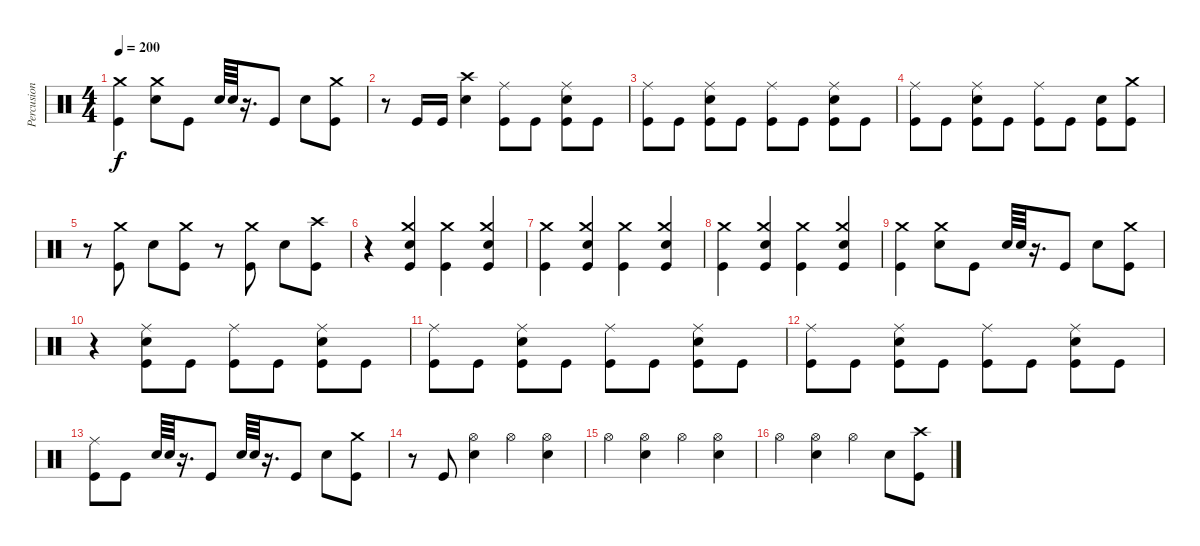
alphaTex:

\track ("Percusion" "Percusion") {instrument percussion}
\staff {score}
\articulation defaults
\ts (4 4)
\tempo 200
\clef neutral
\ks c
("Kick (hit)" "Crash medium (hit)").4{dy f} ("Crash medium (hit)" "Snare (hit) 2").8 "Kick (hit)".8 "Snare (hit) 2".64 "Snare (hit) 2".64 r.16{d} "Kick (hit)".8 "Snare (hit) 2".8 ("Crash medium (hit)" "Kick (hit)").8 |
r.8 "Kick (hit)".16 "Kick (hit)".16 ("Snare (hit) 2" "Crash high (hit)").4 ("Kick (hit)" "Ride (middle)").8 "Kick (hit)".8 ("Kick (hit)" "Ride (middle)" "Snare (hit) 2").8 "Kick (hit)".8 |
("Kick (hit)" "Ride (middle)").8 "Kick (hit)".8 ("Kick (hit)" "Ride (middle)" "Snare (hit) 2").8 "Kick (hit)".8 ("Kick (hit)" "Ride (middle)").8 "Kick (hit)".8 ("Kick (hit)" "Ride (middle)" "Snare (hit) 2").8 "Kick (hit)".8 |
("Kick (hit)" "Ride (middle)").8 "Kick (hit)".8 ("Kick (hit)" "Ride (middle)" "Snare (hit) 2").8 "Kick (hit)".8 ("Kick (hit)" "Ride (middle)").8 "Kick (hit)".8 ("Kick (hit)" "Snare (hit) 2").8 ("Kick (hit)" "Crash medium (hit)").8 |
r.8 ("Kick (hit)" "Crash medium (hit)").8 "Snare (hit) 2".8 ("Kick (hit)" "Crash medium (hit)").8 r.8 ("Kick (hit)" "Crash medium (hit)").8 "Snare (hit) 2".8 ("Kick (hit)" "Crash high (hit)").8 |
r.4 ("Crash medium (hit)" "Kick (hit)" "Snare (hit) 2").4 ("Kick (hit)" "Crash medium (hit)").4 ("Crash medium (hit)" "Kick (hit)" "Snare (hit) 2").4 |
("Kick (hit)" "Crash medium (hit)").4 ("Crash medium (hit)" "Kick (hit)" "Snare (hit) 2").4 ("Kick (hit)" "Crash medium (hit)").4 ("Crash medium (hit)" "Kick (hit)" "Snare (hit) 2").4 |
("Kick (hit)" "Crash medium (hit)").4 ("Crash medium (hit)" "Kick (hit)" "Snare (hit) 2").4 ("Kick (hit)" "Crash medium (hit)").4 ("Crash medium (hit)" "Kick (hit)" "Snare (hit) 2").4 |
("Kick (hit)" "Crash medium (hit)").4 ("Crash medium (hit)" "Snare (hit) 2").8 "Kick (hit)".8 "Snare (hit) 2".64 "Snare (hit) 2".64 r.16{d} "Kick (hit)".8 "Snare (hit) 2".8 ("Crash medium (hit)" "Kick (hit)").8 |
r.4 ("Snare (hit) 2" "Ride (middle)" "Kick (hit)").8 "Kick (hit)".8 ("Kick (hit)" "Ride (middle)").8 "Kick (hit)".8 ("Kick (hit)" "Ride (middle)" "Snare (hit) 2").8 "Kick (hit)".8 |
("Kick (hit)" "Ride (middle)").8 "Kick (hit)".8 ("Kick (hit)" "Ride (middle)" "Snare (hit) 2").8 "Kick (hit)".8 ("Kick (hit)" "Ride (middle)").8 "Kick (hit)".8 ("Kick (hit)" "Ride (middle)" "Snare (hit) 2").8 "Kick (hit)".8 |
("Kick (hit)" "Ride (middle)").8 "Kick (hit)".8 ("Kick (hit)" "Ride (middle)" "Snare (hit) 2").8 "Kick (hit)".8 ("Kick (hit)" "Ride (middle)").8 "Kick (hit)".8 ("Kick (hit)" "Ride (middle)" "Snare (hit) 2").8 "Kick (hit)".8 |
("Ride (middle)" "Kick (hit)").8 "Kick (hit)".8 "Snare (hit) 2".64 "Snare (hit) 2".64 r.16{d} "Kick (hit)".8 "Snare (hit) 2".64 "Snare (hit) 2".64 r.16{d} "Kick (hit)".8 "Snare (hit) 2".8 ("Crash medium (hit)" "Kick (hit)").8 |
r.8 "Kick (hit)".8 ("Snare (hit) 2" "Hi-Hat (open)").4 "Hi-Hat (open)".4 ("Snare (hit) 2" "Hi-Hat (open)").4 |
"Hi-Hat (open)".4 ("Snare (hit) 2" "Hi-Hat (open)").4 "Hi-Hat (open)".4 ("Snare (hit) 2" "Hi-Hat (open)").4 |
"Hi-Hat (open)".4 ("Snare (hit) 2" "Hi-Hat (open)").4 "Hi-Hat (open)".4 "Snare (hit) 2".8 ("Kick (hit)" "Crash high (hit)").8
